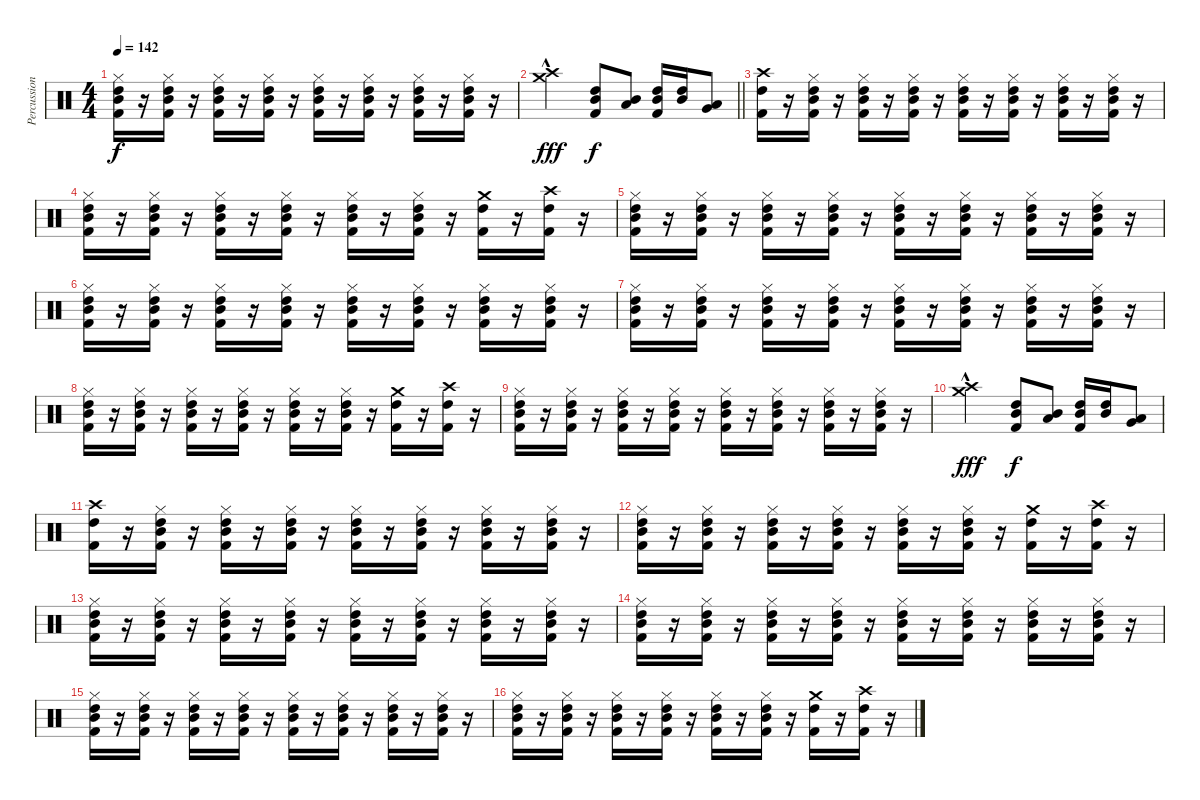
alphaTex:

\track ("Percussion" "Percussion") {instrument percussion}
\staff {score}
\articulation defaults
\ts (4 4)
\tempo 142
\clef neutral
\ks c
("Hi-Hat (closed)" "High Tom (hit)" "Mid Tom (hit)" "Kick (hit) 2").16{dy f} r.16 ("Hi-Hat (closed)" "High Tom (hit)" "Mid Tom (hit)" "Kick (hit) 2").16 r.16 ("Hi-Hat (closed)" "High Tom (hit)" "Mid Tom (hit)" "Kick (hit) 2").16 r.16 ("Hi-Hat (closed)" "High Tom (hit)" "Mid Tom (hit)" "Kick (hit) 2").16 r.16 ("Hi-Hat (closed)" "High Tom (hit)" "Mid Tom (hit)" "Kick (hit) 2").16 r.16 ("Hi-Hat (closed)" "High Tom (hit)" "Mid Tom (hit)" "Kick (hit) 2").16 r.16 ("Hi-Hat (closed)" "High Tom (hit)" "Mid Tom (hit)" "Kick (hit) 2").16 r.16 ("Hi-Hat (closed)" "High Tom (hit)" "Mid Tom (hit)" "Kick (hit) 2").16 r.16 |
\barLineRight lightlight
("Crash high (hit)"{hac} "Crash medium (hit)"{hac}).2{dy fff} ("Mid Tom (hit)" "High Tom (hit)" "Kick (hit) 2").8{dy f} ("Low Tom (hit)" "Mid Tom (hit)").8 ("Mid Tom (hit)" "High Tom (hit)" "Kick (hit) 2").16 ("Mid Tom (hit)" "High Tom (hit)").16 ("Low Tom (hit)" "Very Low Tom (hit)").8 |
("Crash high (hit)" "High Tom (hit)" "Kick (hit) 2").16 r.16 ("Hi-Hat (closed)" "High Tom (hit)" "Mid Tom (hit)" "Kick (hit) 2").16 r.16 ("Hi-Hat (closed)" "High Tom (hit)" "Mid Tom (hit)" "Kick (hit) 2").16 r.16 ("Hi-Hat (closed)" "High Tom (hit)" "Mid Tom (hit)" "Kick (hit) 2").16 r.16 ("Hi-Hat (closed)" "High Tom (hit)" "Mid Tom (hit)" "Kick (hit) 2").16 r.16 ("Hi-Hat (closed)" "High Tom (hit)" "Mid Tom (hit)" "Kick (hit) 2").16 r.16 ("Hi-Hat (closed)" "High Tom (hit)" "Mid Tom (hit)" "Kick (hit) 2").16 r.16 ("Hi-Hat (closed)" "High Tom (hit)" "Mid Tom (hit)" "Kick (hit) 2").16 r.16 |
("Hi-Hat (closed)" "High Tom (hit)" "Mid Tom (hit)" "Kick (hit) 2").16 r.16 ("Hi-Hat (closed)" "High Tom (hit)" "Mid Tom (hit)" "Kick (hit) 2").16 r.16 ("Hi-Hat (closed)" "High Tom (hit)" "Mid Tom (hit)" "Kick (hit) 2").16 r.16 ("Hi-Hat (closed)" "High Tom (hit)" "Mid Tom (hit)" "Kick (hit) 2").16 r.16 ("Hi-Hat (closed)" "High Tom (hit)" "Mid Tom (hit)" "Kick (hit) 2").16 r.16 ("Hi-Hat (closed)" "High Tom (hit)" "Mid Tom (hit)" "Kick (hit) 2").16 r.16 ("Crash medium (hit)" "High Tom (hit)" "Kick (hit) 2").16 r.16 ("Crash high (hit)" "High Tom (hit)" "Kick (hit) 2").16 r.16 |
("Hi-Hat (closed)" "High Tom (hit)" "Mid Tom (hit)" "Kick (hit) 2").16 r.16 ("Hi-Hat (closed)" "High Tom (hit)" "Mid Tom (hit)" "Kick (hit) 2").16 r.16 ("Hi-Hat (closed)" "High Tom (hit)" "Mid Tom (hit)" "Kick (hit) 2").16 r.16 ("Hi-Hat (closed)" "High Tom (hit)" "Mid Tom (hit)" "Kick (hit) 2").16 r.16 ("Hi-Hat (closed)" "High Tom (hit)" "Mid Tom (hit)" "Kick (hit) 2").16 r.16 ("Hi-Hat (closed)" "High Tom (hit)" "Mid Tom (hit)" "Kick (hit) 2").16 r.16 ("Hi-Hat (closed)" "High Tom (hit)" "Mid Tom (hit)" "Kick (hit) 2").16 r.16 ("Hi-Hat (closed)" "High Tom (hit)" "Mid Tom (hit)" "Kick (hit) 2").16 r.16 |
("Hi-Hat (closed)" "High Tom (hit)" "Mid Tom (hit)" "Kick (hit) 2").16 r.16 ("Hi-Hat (closed)" "High Tom (hit)" "Mid Tom (hit)" "Kick (hit) 2").16 r.16 ("Hi-Hat (closed)" "High Tom (hit)" "Mid Tom (hit)" "Kick (hit) 2").16 r.16 ("Hi-Hat (closed)" "High Tom (hit)" "Mid Tom (hit)" "Kick (hit) 2").16 r.16 ("Hi-Hat (closed)" "High Tom (hit)" "Mid Tom (hit)" "Kick (hit) 2").16 r.16 ("Hi-Hat (closed)" "High Tom (hit)" "Mid Tom (hit)" "Kick (hit) 2").16 r.16 ("Hi-Hat (closed)" "High Tom (hit)" "Mid Tom (hit)" "Kick (hit) 2").16 r.16 ("Hi-Hat (closed)" "High Tom (hit)" "Mid Tom (hit)" "Kick (hit) 2").16 r.16 |
("Hi-Hat (closed)" "High Tom (hit)" "Mid Tom (hit)" "Kick (hit) 2").16 r.16 ("Hi-Hat (closed)" "High Tom (hit)" "Mid Tom (hit)" "Kick (hit) 2").16 r.16 ("Hi-Hat (closed)" "High Tom (hit)" "Mid Tom (hit)" "Kick (hit) 2").16 r.16 ("Hi-Hat (closed)" "High Tom (hit)" "Mid Tom (hit)" "Kick (hit) 2").16 r.16 ("Hi-Hat (closed)" "High Tom (hit)" "Mid Tom (hit)" "Kick (hit) 2").16 r.16 ("Hi-Hat (closed)" "High Tom (hit)" "Mid Tom (hit)" "Kick (hit) 2").16 r.16 ("Hi-Hat (closed)" "High Tom (hit)" "Mid Tom (hit)" "Kick (hit) 2").16 r.16 ("Hi-Hat (closed)" "High Tom (hit)" "Mid Tom (hit)" "Kick (hit) 2").16 r.16 |
("Hi-Hat (closed)" "High Tom (hit)" "Mid Tom (hit)" "Kick (hit) 2").16 r.16 ("Hi-Hat (closed)" "High Tom (hit)" "Mid Tom (hit)" "Kick (hit) 2").16 r.16 ("Hi-Hat (closed)" "High Tom (hit)" "Mid Tom (hit)" "Kick (hit) 2").16 r.16 ("Hi-Hat (closed)" "High Tom (hit)" "Mid Tom (hit)" "Kick (hit) 2").16 r.16 ("Hi-Hat (closed)" "High Tom (hit)" "Mid Tom (hit)" "Kick (hit) 2").16 r.16 ("Hi-Hat (closed)" "High Tom (hit)" "Mid Tom (hit)" "Kick (hit) 2").16 r.16 ("Crash medium (hit)" "High Tom (hit)" "Kick (hit) 2").16 r.16 ("Crash high (hit)" "High Tom (hit)" "Kick (hit) 2").16 r.16 |
("Hi-Hat (closed)" "High Tom (hit)" "Mid Tom (hit)" "Kick (hit) 2").16 r.16 ("Hi-Hat (closed)" "High Tom (hit)" "Mid Tom (hit)" "Kick (hit) 2").16 r.16 ("Hi-Hat (closed)" "High Tom (hit)" "Mid Tom (hit)" "Kick (hit) 2").16 r.16 ("Hi-Hat (closed)" "High Tom (hit)" "Mid Tom (hit)" "Kick (hit) 2").16 r.16 ("Hi-Hat (closed)" "High Tom (hit)" "Mid Tom (hit)" "Kick (hit) 2").16 r.16 ("Hi-Hat (closed)" "High Tom (hit)" "Mid Tom (hit)" "Kick (hit) 2").16 r.16 ("Hi-Hat (closed)" "High Tom (hit)" "Mid Tom (hit)" "Kick (hit) 2").16 r.16 ("Hi-Hat (closed)" "High Tom (hit)" "Mid Tom (hit)" "Kick (hit) 2").16 r.16 |
("Crash high (hit)"{hac} "Crash medium (hit)"{hac}).2{dy fff} ("Mid Tom (hit)" "High Tom (hit)" "Kick (hit) 2").8{dy f} ("Low Tom (hit)" "Mid Tom (hit)").8 ("Mid Tom (hit)" "High Tom (hit)" "Kick (hit) 2").16 ("Mid Tom (hit)" "High Tom (hit)").16 ("Low Tom (hit)" "Very Low Tom (hit)").8 |
("Crash high (hit)" "High Tom (hit)" "Kick (hit) 2").16 r.16 ("Hi-Hat (closed)" "High Tom (hit)" "Mid Tom (hit)" "Kick (hit) 2").16 r.16 ("Hi-Hat (closed)" "High Tom (hit)" "Mid Tom (hit)" "Kick (hit) 2").16 r.16 ("Hi-Hat (closed)" "High Tom (hit)" "Mid Tom (hit)" "Kick (hit) 2").16 r.16 ("Hi-Hat (closed)" "High Tom (hit)" "Mid Tom (hit)" "Kick (hit) 2").16 r.16 ("Hi-Hat (closed)" "High Tom (hit)" "Mid Tom (hit)" "Kick (hit) 2").16 r.16 ("Hi-Hat (closed)" "High Tom (hit)" "Mid Tom (hit)" "Kick (hit) 2").16 r.16 ("Hi-Hat (closed)" "High Tom (hit)" "Mid Tom (hit)" "Kick (hit) 2").16 r.16 |
("Hi-Hat (closed)" "High Tom (hit)" "Mid Tom (hit)" "Kick (hit) 2").16 r.16 ("Hi-Hat (closed)" "High Tom (hit)" "Mid Tom (hit)" "Kick (hit) 2").16 r.16 ("Hi-Hat (closed)" "High Tom (hit)" "Mid Tom (hit)" "Kick (hit) 2").16 r.16 ("Hi-Hat (closed)" "High Tom (hit)" "Mid Tom (hit)" "Kick (hit) 2").16 r.16 ("Hi-Hat (closed)" "High Tom (hit)" "Mid Tom (hit)" "Kick (hit) 2").16 r.16 ("Hi-Hat (closed)" "High Tom (hit)" "Mid Tom (hit)" "Kick (hit) 2").16 r.16 ("Crash medium (hit)" "High Tom (hit)" "Kick (hit) 2").16 r.16 ("Crash high (hit)" "High Tom (hit)" "Kick (hit) 2").16 r.16 |
("Hi-Hat (closed)" "High Tom (hit)" "Mid Tom (hit)" "Kick (hit) 2").16 r.16 ("Hi-Hat (closed)" "High Tom (hit)" "Mid Tom (hit)" "Kick (hit) 2").16 r.16 ("Hi-Hat (closed)" "High Tom (hit)" "Mid Tom (hit)" "Kick (hit) 2").16 r.16 ("Hi-Hat (closed)" "High Tom (hit)" "Mid Tom (hit)" "Kick (hit) 2").16 r.16 ("Hi-Hat (closed)" "High Tom (hit)" "Mid Tom (hit)" "Kick (hit) 2").16 r.16 ("Hi-Hat (closed)" "High Tom (hit)" "Mid Tom (hit)" "Kick (hit) 2").16 r.16 ("Hi-Hat (closed)" "High Tom (hit)" "Mid Tom (hit)" "Kick (hit) 2").16 r.16 ("Hi-Hat (closed)" "High Tom (hit)" "Mid Tom (hit)" "Kick (hit) 2").16 r.16 |
("Hi-Hat (closed)" "High Tom (hit)" "Mid Tom (hit)" "Kick (hit) 2").16 r.16 ("Hi-Hat (closed)" "High Tom (hit)" "Mid Tom (hit)" "Kick (hit) 2").16 r.16 ("Hi-Hat (closed)" "High Tom (hit)" "Mid Tom (hit)" "Kick (hit) 2").16 r.16 ("Hi-Hat (closed)" "High Tom (hit)" "Mid Tom (hit)" "Kick (hit) 2").16 r.16 ("Hi-Hat (closed)" "High Tom (hit)" "Mid Tom (hit)" "Kick (hit) 2").16 r.16 ("Hi-Hat (closed)" "High Tom (hit)" "Mid Tom (hit)" "Kick (hit) 2").16 r.16 ("Hi-Hat (closed)" "High Tom (hit)" "Mid Tom (hit)" "Kick (hit) 2").16 r.16 ("Hi-Hat (closed)" "High Tom (hit)" "Mid Tom (hit)" "Kick (hit) 2").16 r.16 |
("Hi-Hat (closed)" "High Tom (hit)" "Mid Tom (hit)" "Kick (hit) 2").16 r.16 ("Hi-Hat (closed)" "High Tom (hit)" "Mid Tom (hit)" "Kick (hit) 2").16 r.16 ("Hi-Hat (closed)" "High Tom (hit)" "Mid Tom (hit)" "Kick (hit) 2").16 r.16 ("Hi-Hat (closed)" "High Tom (hit)" "Mid Tom (hit)" "Kick (hit) 2").16 r.16 ("Hi-Hat (closed)" "High Tom (hit)" "Mid Tom (hit)" "Kick (hit) 2").16 r.16 ("Hi-Hat (closed)" "High Tom (hit)" "Mid Tom (hit)" "Kick (hit) 2").16 r.16 ("Hi-Hat (closed)" "High Tom (hit)" "Mid Tom (hit)" "Kick (hit) 2").16 r.16 ("Hi-Hat (closed)" "High Tom (hit)" "Mid Tom (hit)" "Kick (hit) 2").16 r.16 |
("Hi-Hat (closed)" "High Tom (hit)" "Mid Tom (hit)" "Kick (hit) 2").16 r.16 ("Hi-Hat (closed)" "High Tom (hit)" "Mid Tom (hit)" "Kick (hit) 2").16 r.16 ("Hi-Hat (closed)" "High Tom (hit)" "Mid Tom (hit)" "Kick (hit) 2").16 r.16 ("Hi-Hat (closed)" "High Tom (hit)" "Mid Tom (hit)" "Kick (hit) 2").16 r.16 ("Hi-Hat (closed)" "High Tom (hit)" "Mid Tom (hit)" "Kick (hit) 2").16 r.16 ("Hi-Hat (closed)" "High Tom (hit)" "Mid Tom (hit)" "Kick (hit) 2").16 r.16 ("Crash medium (hit)" "High Tom (hit)" "Kick (hit) 2").16 r.16 ("Crash high (hit)" "High Tom (hit)" "Kick (hit) 2").16 r.16
